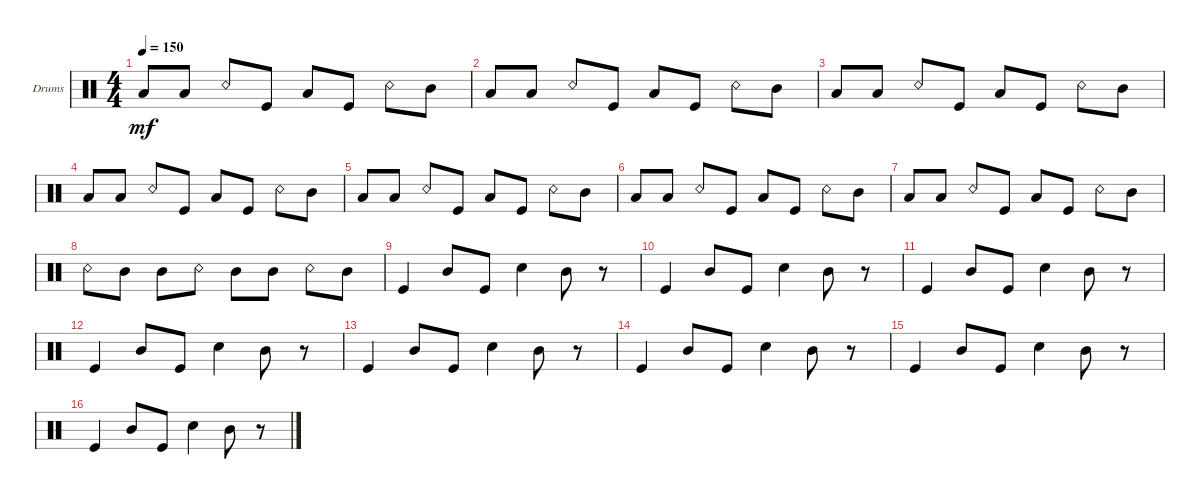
\defaultSystemsLayout 4
\bracketExtendMode groupsimilarinstruments
\firstSystemTrackNameOrientation horizontal
\otherSystemsTrackNameOrientation horizontal
\track ("Drumkit" "Drums") {instrument percussion}
\staff {score}
\articulation defaults
\ts (4 4)
\tempo 150
\clef neutral
\ks c "Low Tom (hit)".8{dy mf} "Low Tom (hit)".8 "Snare (rim shot)".8 "Kick (hit)".8 "Low Tom (hit)".8 "Kick (hit)".8 "Snare (rim shot)".8 "Mid Tom (hit)".8
|
"Low Tom (hit)".8 "Low Tom (hit)".8 "Snare (rim shot)".8 "Kick (hit)".8 "Low Tom (hit)".8 "Kick (hit)".8 "Snare (rim shot)".8 "Mid Tom (hit)".8 |
"Low Tom (hit)".8 "Low Tom (hit)".8 "Snare (rim shot)".8 "Kick (hit)".8 "Low Tom (hit)".8 "Kick (hit)".8 "Snare (rim shot)".8 "Mid Tom (hit)".8 |
"Low Tom (hit)".8 "Low Tom (hit)".8 "Snare (rim shot)".8 "Kick (hit)".8 "Low Tom (hit)".8 "Kick (hit)".8 "Snare (rim shot)".8 "Mid Tom (hit)".8 |
"Low Tom (hit)".8 "Low Tom (hit)".8 "Snare (rim shot)".8 "Kick (hit)".8 "Low Tom (hit)".8 "Kick (hit)".8 "Snare (rim shot)".8 "Mid Tom (hit)".8 |
"Low Tom (hit)".8 "Low Tom (hit)".8 "Snare (rim shot)".8 "Kick (hit)".8 "Low Tom (hit)".8 "Kick (hit)".8 "Snare (rim shot)".8 "Mid Tom (hit)".8 |
"Low Tom (hit)".8 "Low Tom (hit)".8 "Snare (rim shot)".8 "Kick (hit)".8 "Low Tom (hit)".8 "Kick (hit)".8 "Snare (rim shot)".8 "Mid Tom (hit)".8 |
"Snare (rim shot)".8 "Mid Tom (hit)".8 "Mid Tom (hit)".8 "Snare (rim shot)".8 "Mid Tom (hit)".8 "Mid Tom (hit)".8 "Snare (rim shot)".8 "Mid Tom (hit)".8 |
"Kick (hit)".4 "Mid Tom (hit)".8 "Kick (hit)".8 "Snare (hit) 2".4 "Mid Tom (hit)".8 r.8 |
"Kick (hit)".4 "Mid Tom (hit)".8 "Kick (hit)".8 "Snare (hit) 2".4 "Mid Tom (hit)".8 r.8 |
"Kick (hit)".4 "Mid Tom (hit)".8 "Kick (hit)".8 "Snare (hit) 2".4 "Mid Tom (hit)".8 r.8 |
"Kick (hit)".4 "Mid Tom (hit)".8 "Kick (hit)".8 "Snare (hit) 2".4 "Mid Tom (hit)".8 r.8 |
"Kick (hit)".4 "Mid Tom (hit)".8 "Kick (hit)".8 "Snare (hit) 2".4 "Mid Tom (hit)".8 r.8 |
"Kick (hit)".4 "Mid Tom (hit)".8 "Kick (hit)".8 "Snare (hit) 2".4 "Mid Tom (hit)".8 r.8 |
"Kick (hit)".4 "Mid Tom (hit)".8 "Kick (hit)".8 "Snare (hit) 2".4 "Mid Tom (hit)".8 r.8 |
"Kick (hit)".4 "Mid Tom (hit)".8 "Kick (hit)".8 "Snare (hit) 2".4 "Mid Tom (hit)".8 r.8
